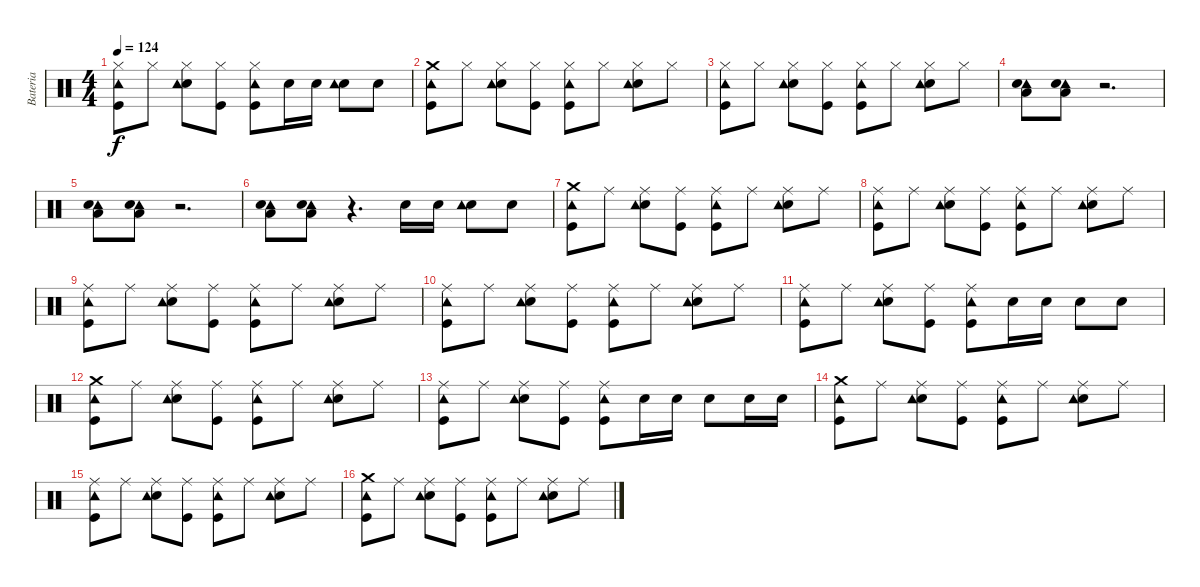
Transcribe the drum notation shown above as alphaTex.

\track ("Bateria" "Bateria") {instrument percussion}
\staff {score}
\articulation defaults
\ts (4 4)
\tempo 124
\clef neutral
\ks c
("Hi-Hat (closed)" "Kick (hit)" "Tambourine (hit)").8{dy f} "Hi-Hat (closed)".8 ("Hi-Hat (closed)" "Snare (hit) 2" "Tambourine (hit)").8 ("Hi-Hat (closed)" "Kick (hit)").8 ("Hi-Hat (closed)" "Kick (hit)" "Tambourine (hit)").8 "Snare (hit) 2".16 "Snare (hit) 2".16 ("Snare (hit) 2" "Tambourine (hit)").8 "Snare (hit) 2".8 |
("Crash medium (hit)" "Kick (hit)" "Tambourine (hit)").8 "Hi-Hat (closed)".8 ("Hi-Hat (closed)" "Snare (hit) 2" "Tambourine (hit)").8 ("Hi-Hat (closed)" "Kick (hit)").8 ("Hi-Hat (closed)" "Kick (hit)" "Tambourine (hit)").8 "Hi-Hat (closed)".8 ("Hi-Hat (closed)" "Snare (hit) 2" "Tambourine (hit)").8 "Hi-Hat (closed)".8 |
("Hi-Hat (closed)" "Kick (hit)" "Tambourine (hit)").8 "Hi-Hat (closed)".8 ("Hi-Hat (closed)" "Snare (hit) 2" "Tambourine (hit)").8 ("Hi-Hat (closed)" "Kick (hit)").8 ("Hi-Hat (closed)" "Kick (hit)" "Tambourine (hit)").8 "Hi-Hat (closed)".8 ("Hi-Hat (closed)" "Snare (hit) 2" "Tambourine (hit)").8 "Hi-Hat (closed)".8 |
("Tambourine (hit)" "Snare (hit) 2" "Low Floor Tom (hit)").8 ("Tambourine (hit)" "Snare (hit) 2" "Low Floor Tom (hit)").8 r.2{d} |
("Tambourine (hit)" "Snare (hit) 2" "Low Floor Tom (hit)").8 ("Tambourine (hit)" "Snare (hit) 2" "Low Floor Tom (hit)").8 r.2{d} |
("Tambourine (hit)" "Snare (hit) 2" "Low Floor Tom (hit)").8 ("Tambourine (hit)" "Snare (hit) 2" "Low Floor Tom (hit)").8 r.4{d} "Snare (hit) 2".16 "Snare (hit) 2".16 ("Snare (hit) 2" "Tambourine (hit)").8 "Snare (hit) 2".8 |
("Crash medium (hit)" "Kick (hit)" "Tambourine (hit)").8 "Ride (middle)".8 ("Ride (middle)" "Snare (hit) 2" "Tambourine (hit)").8 ("Ride (middle)" "Kick (hit)").8 ("Ride (middle)" "Kick (hit)" "Tambourine (hit)").8 "Ride (middle)".8 ("Ride (middle)" "Snare (hit) 2" "Tambourine (hit)").8 "Ride (middle)".8 |
("Ride (middle)" "Kick (hit)" "Tambourine (hit)").8 "Ride (middle)".8 ("Ride (middle)" "Snare (hit) 2" "Tambourine (hit)").8 ("Ride (middle)" "Kick (hit)").8 ("Ride (middle)" "Kick (hit)" "Tambourine (hit)").8 "Ride (middle)".8 ("Ride (middle)" "Snare (hit) 2" "Tambourine (hit)").8 "Ride (middle)".8 |
("Ride (middle)" "Kick (hit)" "Tambourine (hit)").8 "Ride (middle)".8 ("Ride (middle)" "Snare (hit) 2" "Tambourine (hit)").8 ("Ride (middle)" "Kick (hit)").8 ("Ride (middle)" "Kick (hit)" "Tambourine (hit)").8 "Ride (middle)".8 ("Ride (middle)" "Snare (hit) 2" "Tambourine (hit)").8 "Ride (middle)".8 |
("Ride (middle)" "Kick (hit)" "Tambourine (hit)").8 "Ride (middle)".8 ("Ride (middle)" "Snare (hit) 2" "Tambourine (hit)").8 ("Ride (middle)" "Kick (hit)").8 ("Ride (middle)" "Kick (hit)" "Tambourine (hit)").8 "Ride (middle)".8 ("Ride (middle)" "Snare (hit) 2" "Tambourine (hit)").8 "Ride (middle)".8 |
("Ride (middle)" "Kick (hit)" "Tambourine (hit)").8 "Ride (middle)".8 ("Ride (middle)" "Snare (hit) 2" "Tambourine (hit)").8 ("Ride (middle)" "Kick (hit)").8 ("Ride (middle)" "Kick (hit)" "Tambourine (hit)").8 "Snare (hit) 2".16 "Snare (hit) 2".16 "Snare (hit) 2".8 "Snare (hit) 2".8 |
("Crash medium (hit)" "Kick (hit)" "Tambourine (hit)").8 "Ride (middle)".8 ("Ride (middle)" "Snare (hit) 2" "Tambourine (hit)").8 ("Ride (middle)" "Kick (hit)").8 ("Ride (middle)" "Kick (hit)" "Tambourine (hit)").8 "Ride (middle)".8 ("Ride (middle)" "Snare (hit) 2" "Tambourine (hit)").8 "Ride (middle)".8 |
("Ride (middle)" "Kick (hit)" "Tambourine (hit)").8 "Ride (middle)".8 ("Ride (middle)" "Snare (hit) 2" "Tambourine (hit)").8 ("Ride (middle)" "Kick (hit)").8 ("Ride (middle)" "Kick (hit)" "Tambourine (hit)").8 "Snare (hit) 2".16 "Snare (hit) 2".16 "Snare (hit) 2".8 "Snare (hit) 2".16 "Snare (hit) 2".16 |
("Crash medium (hit)" "Kick (hit)" "Tambourine (hit)").8 "Ride (middle)".8 ("Ride (middle)" "Snare (hit) 2" "Tambourine (hit)").8 ("Ride (middle)" "Kick (hit)").8 ("Ride (middle)" "Kick (hit)" "Tambourine (hit)").8 "Ride (middle)".8 ("Ride (middle)" "Snare (hit) 2" "Tambourine (hit)").8 "Ride (middle)".8 |
("Ride (middle)" "Kick (hit)" "Tambourine (hit)").8 "Ride (middle)".8 ("Ride (middle)" "Snare (hit) 2" "Tambourine (hit)").8 ("Ride (middle)" "Kick (hit)").8 ("Ride (middle)" "Kick (hit)" "Tambourine (hit)").8 "Ride (middle)".8 ("Ride (middle)" "Snare (hit) 2" "Tambourine (hit)").8 "Ride (middle)".8 |
("Crash medium (hit)" "Kick (hit)" "Tambourine (hit)").8 "Ride (middle)".8 ("Ride (middle)" "Snare (hit) 2" "Tambourine (hit)").8 ("Ride (middle)" "Kick (hit)").8 ("Ride (middle)" "Kick (hit)" "Tambourine (hit)").8 "Ride (middle)".8 ("Ride (middle)" "Snare (hit) 2" "Tambourine (hit)").8 "Ride (middle)".8
